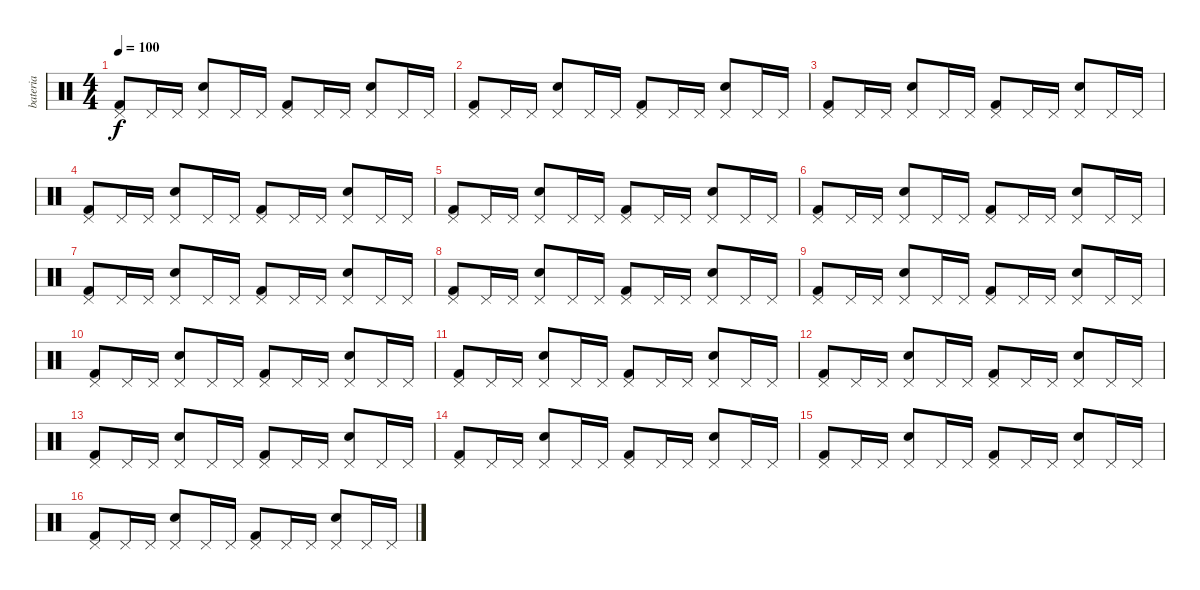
\track ("bateria" "bateria") {instrument percussion}
\staff {score}
\articulation defaults
\ts (4 4)
\tempo 100
\clef neutral
\ks c
("Pedal Hi-Hat (hit)" "Kick (hit) 2").8{dy f} "Pedal Hi-Hat (hit)".16 "Pedal Hi-Hat (hit)".16 ("Pedal Hi-Hat (hit)" "Snare (hit) 2").8 "Pedal Hi-Hat (hit)".16 "Pedal Hi-Hat (hit)".16 ("Pedal Hi-Hat (hit)" "Kick (hit) 2").8 "Pedal Hi-Hat (hit)".16 "Pedal Hi-Hat (hit)".16 ("Pedal Hi-Hat (hit)" "Snare (hit) 2").8 "Pedal Hi-Hat (hit)".16 "Pedal Hi-Hat (hit)".16 |
("Pedal Hi-Hat (hit)" "Kick (hit) 2").8 "Pedal Hi-Hat (hit)".16 "Pedal Hi-Hat (hit)".16 ("Pedal Hi-Hat (hit)" "Snare (hit) 2").8 "Pedal Hi-Hat (hit)".16 "Pedal Hi-Hat (hit)".16 ("Pedal Hi-Hat (hit)" "Kick (hit) 2").8 "Pedal Hi-Hat (hit)".16 "Pedal Hi-Hat (hit)".16 ("Pedal Hi-Hat (hit)" "Snare (hit) 2").8 "Pedal Hi-Hat (hit)".16 "Pedal Hi-Hat (hit)".16 |
("Pedal Hi-Hat (hit)" "Kick (hit) 2").8 "Pedal Hi-Hat (hit)".16 "Pedal Hi-Hat (hit)".16 ("Pedal Hi-Hat (hit)" "Snare (hit) 2").8 "Pedal Hi-Hat (hit)".16 "Pedal Hi-Hat (hit)".16 ("Pedal Hi-Hat (hit)" "Kick (hit) 2").8 "Pedal Hi-Hat (hit)".16 "Pedal Hi-Hat (hit)".16 ("Pedal Hi-Hat (hit)" "Snare (hit) 2").8 "Pedal Hi-Hat (hit)".16 "Pedal Hi-Hat (hit)".16 |
("Pedal Hi-Hat (hit)" "Kick (hit) 2").8 "Pedal Hi-Hat (hit)".16 "Pedal Hi-Hat (hit)".16 ("Pedal Hi-Hat (hit)" "Snare (hit) 2").8 "Pedal Hi-Hat (hit)".16 "Pedal Hi-Hat (hit)".16 ("Pedal Hi-Hat (hit)" "Kick (hit) 2").8 "Pedal Hi-Hat (hit)".16 "Pedal Hi-Hat (hit)".16 ("Pedal Hi-Hat (hit)" "Snare (hit) 2").8 "Pedal Hi-Hat (hit)".16 "Pedal Hi-Hat (hit)".16 |
("Pedal Hi-Hat (hit)" "Kick (hit) 2").8 "Pedal Hi-Hat (hit)".16 "Pedal Hi-Hat (hit)".16 ("Pedal Hi-Hat (hit)" "Snare (hit) 2").8 "Pedal Hi-Hat (hit)".16 "Pedal Hi-Hat (hit)".16 ("Pedal Hi-Hat (hit)" "Kick (hit) 2").8 "Pedal Hi-Hat (hit)".16 "Pedal Hi-Hat (hit)".16 ("Pedal Hi-Hat (hit)" "Snare (hit) 2").8 "Pedal Hi-Hat (hit)".16 "Pedal Hi-Hat (hit)".16 |
("Pedal Hi-Hat (hit)" "Kick (hit) 2").8 "Pedal Hi-Hat (hit)".16 "Pedal Hi-Hat (hit)".16 ("Pedal Hi-Hat (hit)" "Snare (hit) 2").8 "Pedal Hi-Hat (hit)".16 "Pedal Hi-Hat (hit)".16 ("Pedal Hi-Hat (hit)" "Kick (hit) 2").8 "Pedal Hi-Hat (hit)".16 "Pedal Hi-Hat (hit)".16 ("Pedal Hi-Hat (hit)" "Snare (hit) 2").8 "Pedal Hi-Hat (hit)".16 "Pedal Hi-Hat (hit)".16 |
("Pedal Hi-Hat (hit)" "Kick (hit) 2").8 "Pedal Hi-Hat (hit)".16 "Pedal Hi-Hat (hit)".16 ("Pedal Hi-Hat (hit)" "Snare (hit) 2").8 "Pedal Hi-Hat (hit)".16 "Pedal Hi-Hat (hit)".16 ("Pedal Hi-Hat (hit)" "Kick (hit) 2").8 "Pedal Hi-Hat (hit)".16 "Pedal Hi-Hat (hit)".16 ("Pedal Hi-Hat (hit)" "Snare (hit) 2").8 "Pedal Hi-Hat (hit)".16 "Pedal Hi-Hat (hit)".16 |
("Pedal Hi-Hat (hit)" "Kick (hit) 2").8 "Pedal Hi-Hat (hit)".16 "Pedal Hi-Hat (hit)".16 ("Pedal Hi-Hat (hit)" "Snare (hit) 2").8 "Pedal Hi-Hat (hit)".16 "Pedal Hi-Hat (hit)".16 ("Pedal Hi-Hat (hit)" "Kick (hit) 2").8 "Pedal Hi-Hat (hit)".16 "Pedal Hi-Hat (hit)".16 ("Pedal Hi-Hat (hit)" "Snare (hit) 2").8 "Pedal Hi-Hat (hit)".16 "Pedal Hi-Hat (hit)".16 |
("Pedal Hi-Hat (hit)" "Kick (hit) 2").8 "Pedal Hi-Hat (hit)".16 "Pedal Hi-Hat (hit)".16 ("Pedal Hi-Hat (hit)" "Snare (hit) 2").8 "Pedal Hi-Hat (hit)".16 "Pedal Hi-Hat (hit)".16 ("Pedal Hi-Hat (hit)" "Kick (hit) 2").8 "Pedal Hi-Hat (hit)".16 "Pedal Hi-Hat (hit)".16 ("Pedal Hi-Hat (hit)" "Snare (hit) 2").8 "Pedal Hi-Hat (hit)".16 "Pedal Hi-Hat (hit)".16 |
\section ("" "")
("Pedal Hi-Hat (hit)" "Kick (hit) 2").8 "Pedal Hi-Hat (hit)".16 "Pedal Hi-Hat (hit)".16 ("Pedal Hi-Hat (hit)" "Snare (hit) 2").8 "Pedal Hi-Hat (hit)".16 "Pedal Hi-Hat (hit)".16 ("Pedal Hi-Hat (hit)" "Kick (hit) 2").8 "Pedal Hi-Hat (hit)".16 "Pedal Hi-Hat (hit)".16 ("Pedal Hi-Hat (hit)" "Snare (hit) 2").8 "Pedal Hi-Hat (hit)".16 "Pedal Hi-Hat (hit)".16 |
("Pedal Hi-Hat (hit)" "Kick (hit) 2").8 "Pedal Hi-Hat (hit)".16 "Pedal Hi-Hat (hit)".16 ("Pedal Hi-Hat (hit)" "Snare (hit) 2").8 "Pedal Hi-Hat (hit)".16 "Pedal Hi-Hat (hit)".16 ("Pedal Hi-Hat (hit)" "Kick (hit) 2").8 "Pedal Hi-Hat (hit)".16 "Pedal Hi-Hat (hit)".16 ("Pedal Hi-Hat (hit)" "Snare (hit) 2").8 "Pedal Hi-Hat (hit)".16 "Pedal Hi-Hat (hit)".16 |
("Pedal Hi-Hat (hit)" "Kick (hit) 2").8 "Pedal Hi-Hat (hit)".16 "Pedal Hi-Hat (hit)".16 ("Pedal Hi-Hat (hit)" "Snare (hit) 2").8 "Pedal Hi-Hat (hit)".16 "Pedal Hi-Hat (hit)".16 ("Pedal Hi-Hat (hit)" "Kick (hit) 2").8 "Pedal Hi-Hat (hit)".16 "Pedal Hi-Hat (hit)".16 ("Pedal Hi-Hat (hit)" "Snare (hit) 2").8 "Pedal Hi-Hat (hit)".16 "Pedal Hi-Hat (hit)".16 |
("Pedal Hi-Hat (hit)" "Kick (hit) 2").8 "Pedal Hi-Hat (hit)".16 "Pedal Hi-Hat (hit)".16 ("Pedal Hi-Hat (hit)" "Snare (hit) 2").8 "Pedal Hi-Hat (hit)".16 "Pedal Hi-Hat (hit)".16 ("Pedal Hi-Hat (hit)" "Kick (hit) 2").8 "Pedal Hi-Hat (hit)".16 "Pedal Hi-Hat (hit)".16 ("Pedal Hi-Hat (hit)" "Snare (hit) 2").8 "Pedal Hi-Hat (hit)".16 "Pedal Hi-Hat (hit)".16 |
("Pedal Hi-Hat (hit)" "Kick (hit) 2").8 "Pedal Hi-Hat (hit)".16 "Pedal Hi-Hat (hit)".16 ("Pedal Hi-Hat (hit)" "Snare (hit) 2").8 "Pedal Hi-Hat (hit)".16 "Pedal Hi-Hat (hit)".16 ("Pedal Hi-Hat (hit)" "Kick (hit) 2").8 "Pedal Hi-Hat (hit)".16 "Pedal Hi-Hat (hit)".16 ("Pedal Hi-Hat (hit)" "Snare (hit) 2").8 "Pedal Hi-Hat (hit)".16 "Pedal Hi-Hat (hit)".16 |
("Pedal Hi-Hat (hit)" "Kick (hit) 2").8 "Pedal Hi-Hat (hit)".16 "Pedal Hi-Hat (hit)".16 ("Pedal Hi-Hat (hit)" "Snare (hit) 2").8 "Pedal Hi-Hat (hit)".16 "Pedal Hi-Hat (hit)".16 ("Pedal Hi-Hat (hit)" "Kick (hit) 2").8 "Pedal Hi-Hat (hit)".16 "Pedal Hi-Hat (hit)".16 ("Pedal Hi-Hat (hit)" "Snare (hit) 2").8 "Pedal Hi-Hat (hit)".16 "Pedal Hi-Hat (hit)".16 |
("Pedal Hi-Hat (hit)" "Kick (hit) 2").8 "Pedal Hi-Hat (hit)".16 "Pedal Hi-Hat (hit)".16 ("Pedal Hi-Hat (hit)" "Snare (hit) 2").8 "Pedal Hi-Hat (hit)".16 "Pedal Hi-Hat (hit)".16 ("Pedal Hi-Hat (hit)" "Kick (hit) 2").8 "Pedal Hi-Hat (hit)".16 "Pedal Hi-Hat (hit)".16 ("Pedal Hi-Hat (hit)" "Snare (hit) 2").8 "Pedal Hi-Hat (hit)".16 "Pedal Hi-Hat (hit)".16
